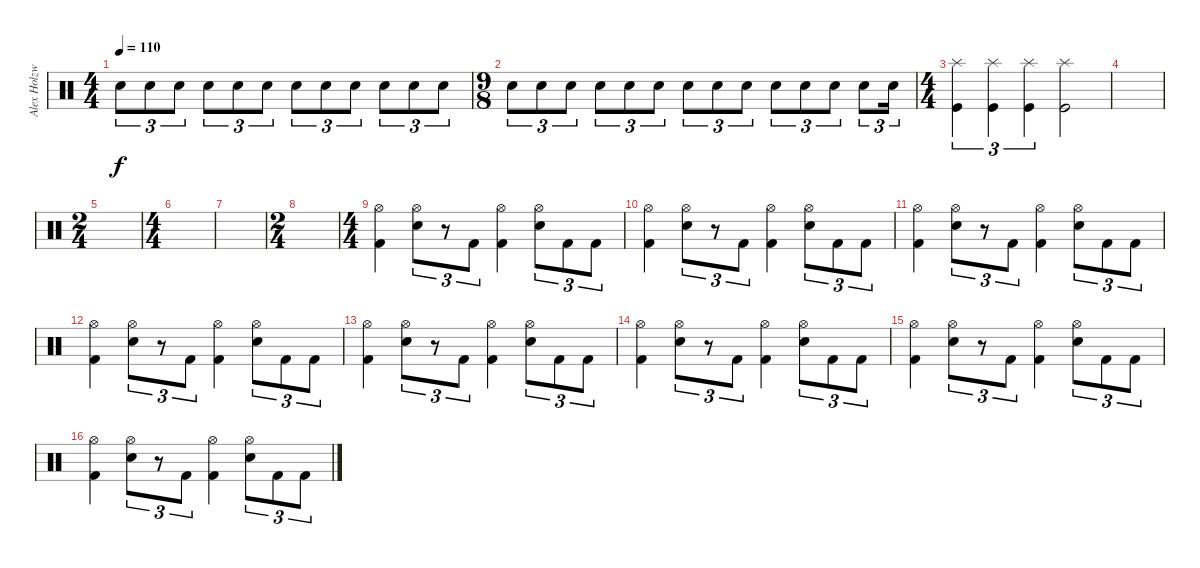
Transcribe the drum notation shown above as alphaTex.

\track ("Alex Holzwarth" "Alex Holzw") {instrument percussion}
\staff {score}
\articulation defaults
\ts (4 4)
\tempo 110
\clef neutral
\ks c "Snare (hit) 2".8{tu (3 2) dy f volume 13} "Snare (hit) 2".8{tu (3 2)} "Snare (hit) 2".8{tu (3 2)} "Snare (hit) 2".8{tu (3 2)} "Snare (hit) 2".8{tu (3 2)} "Snare (hit) 2".8{tu (3 2)} "Snare (hit) 2".8{tu (3 2)} "Snare (hit) 2".8{tu (3 2)} "Snare (hit) 2".8{tu (3 2)} "Snare (hit) 2".8{tu (3 2)} "Snare (hit) 2".8{tu (3 2)} "Snare (hit) 2".8{tu (3 2)}
|
\ts (9 8)
"Snare (hit) 2".8{tu (3 2)} "Snare (hit) 2".8{tu (3 2)} "Snare (hit) 2".8{tu (3 2)} "Snare (hit) 2".8{tu (3 2)} "Snare (hit) 2".8{tu (3 2)} "Snare (hit) 2".8{tu (3 2)} "Snare (hit) 2".8{tu (3 2)} "Snare (hit) 2".8{tu (3 2)} "Snare (hit) 2".8{tu (3 2)} "Snare (hit) 2".8{tu (3 2)} "Snare (hit) 2".8{tu (3 2)} "Snare (hit) 2".8{tu (3 2)} "Snare (hit) 2".8{tu (3 2)} "Snare (hit) 2".16{tu (3 2)} |
\ts (4 4)
("Splash (hit)" "Kick (hit)").4{tu (3 2)} ("Splash (hit)" "Kick (hit)").4{tu (3 2)} ("Splash (hit)" "Kick (hit)").4{tu (3 2)} ("Splash (hit)" "Kick (hit)").2 |
|
\ts (2 4)
|
\ts (4 4)
|
|
\ts (2 4)
|
\ts (4 4)
("Hi-Hat (open)" "Kick (hit) 2").4 ("Hi-Hat (open)" "Snare (hit) 2").8{tu (3 2)} r.8{tu (3 2)} "Kick (hit) 2".8{tu (3 2)} ("Hi-Hat (open)" "Kick (hit) 2").4 ("Hi-Hat (open)" "Snare (hit) 2").8{tu (3 2)} "Kick (hit) 2".8{tu (3 2)} "Kick (hit) 2".8{tu (3 2)} |
("Hi-Hat (open)" "Kick (hit) 2").4 ("Hi-Hat (open)" "Snare (hit) 2").8{tu (3 2)} r.8{tu (3 2)} "Kick (hit) 2".8{tu (3 2)} ("Hi-Hat (open)" "Kick (hit) 2").4 ("Hi-Hat (open)" "Snare (hit) 2").8{tu (3 2)} "Kick (hit) 2".8{tu (3 2)} "Kick (hit) 2".8{tu (3 2)} |
("Hi-Hat (open)" "Kick (hit) 2").4 ("Hi-Hat (open)" "Snare (hit) 2").8{tu (3 2)} r.8{tu (3 2)} "Kick (hit) 2".8{tu (3 2)} ("Hi-Hat (open)" "Kick (hit) 2").4 ("Hi-Hat (open)" "Snare (hit) 2").8{tu (3 2)} "Kick (hit) 2".8{tu (3 2)} "Kick (hit) 2".8{tu (3 2)} |
("Hi-Hat (open)" "Kick (hit) 2").4 ("Hi-Hat (open)" "Snare (hit) 2").8{tu (3 2)} r.8{tu (3 2)} "Kick (hit) 2".8{tu (3 2)} ("Hi-Hat (open)" "Kick (hit) 2").4 ("Hi-Hat (open)" "Snare (hit) 2").8{tu (3 2)} "Kick (hit) 2".8{tu (3 2)} "Kick (hit) 2".8{tu (3 2)} |
("Hi-Hat (open)" "Kick (hit) 2").4 ("Hi-Hat (open)" "Snare (hit) 2").8{tu (3 2)} r.8{tu (3 2)} "Kick (hit) 2".8{tu (3 2)} ("Hi-Hat (open)" "Kick (hit) 2").4 ("Hi-Hat (open)" "Snare (hit) 2").8{tu (3 2)} "Kick (hit) 2".8{tu (3 2)} "Kick (hit) 2".8{tu (3 2)} |
("Hi-Hat (open)" "Kick (hit) 2").4 ("Hi-Hat (open)" "Snare (hit) 2").8{tu (3 2)} r.8{tu (3 2)} "Kick (hit) 2".8{tu (3 2)} ("Hi-Hat (open)" "Kick (hit) 2").4 ("Hi-Hat (open)" "Snare (hit) 2").8{tu (3 2)} "Kick (hit) 2".8{tu (3 2)} "Kick (hit) 2".8{tu (3 2)} |
("Hi-Hat (open)" "Kick (hit) 2").4 ("Hi-Hat (open)" "Snare (hit) 2").8{tu (3 2)} r.8{tu (3 2)} "Kick (hit) 2".8{tu (3 2)} ("Hi-Hat (open)" "Kick (hit) 2").4 ("Hi-Hat (open)" "Snare (hit) 2").8{tu (3 2)} "Kick (hit) 2".8{tu (3 2)} "Kick (hit) 2".8{tu (3 2)} |
("Hi-Hat (open)" "Kick (hit) 2").4 ("Hi-Hat (open)" "Snare (hit) 2").8{tu (3 2)} r.8{tu (3 2)} "Kick (hit) 2".8{tu (3 2)} ("Hi-Hat (open)" "Kick (hit) 2").4 ("Hi-Hat (open)" "Snare (hit) 2").8{tu (3 2)} "Kick (hit) 2".8{tu (3 2)} "Kick (hit) 2".8{tu (3 2)}
